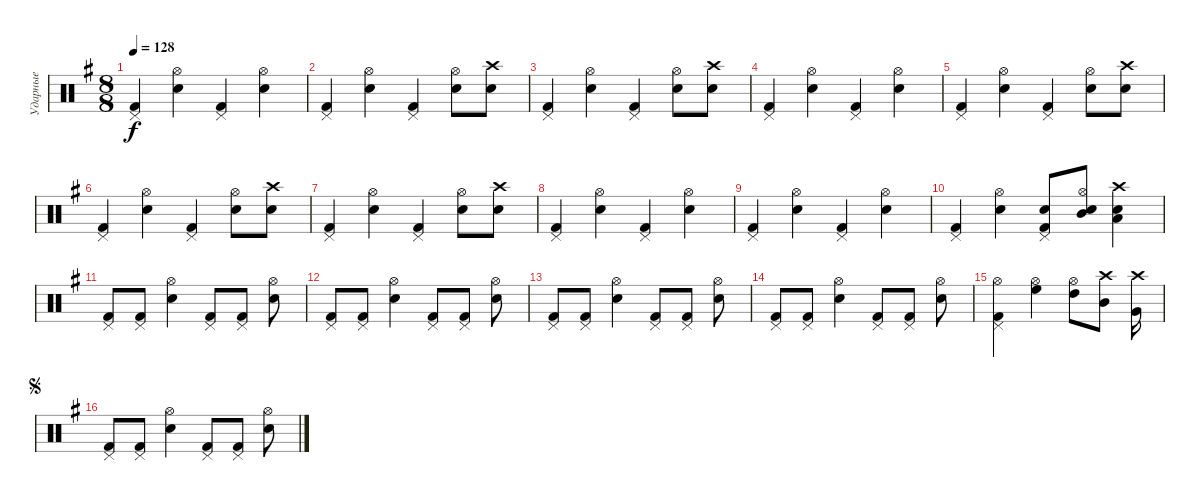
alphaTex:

\track ("Ударные" "Ударные") {instrument percussion}
\staff {score}
\articulation defaults
\ts (8 8)
\tempo 128
\clef neutral
\ks g
("Kick (hit) 2" "Pedal Hi-Hat (hit)").4{dy f} ("Electric Snare (hit)" "Hi-Hat (open)").4 ("Kick (hit) 2" "Pedal Hi-Hat (hit)").4 ("Electric Snare (hit)" "Hi-Hat (open)").4 |
("Kick (hit) 2" "Pedal Hi-Hat (hit)").4 ("Electric Snare (hit)" "Hi-Hat (open)").4 ("Kick (hit) 2" "Pedal Hi-Hat (hit)").4 ("Electric Snare (hit)" "Hi-Hat (open)").8 ("Electric Snare (hit)" "Crash high (hit)").8 |
("Kick (hit) 2" "Pedal Hi-Hat (hit)").4 ("Electric Snare (hit)" "Hi-Hat (open)").4 ("Kick (hit) 2" "Pedal Hi-Hat (hit)").4 ("Electric Snare (hit)" "Hi-Hat (open)").8 ("Electric Snare (hit)" "Crash high (hit)").8 |
("Kick (hit) 2" "Pedal Hi-Hat (hit)").4 ("Electric Snare (hit)" "Hi-Hat (open)").4 ("Kick (hit) 2" "Pedal Hi-Hat (hit)").4 ("Electric Snare (hit)" "Hi-Hat (open)").4 |
("Kick (hit) 2" "Pedal Hi-Hat (hit)").4 ("Electric Snare (hit)" "Hi-Hat (open)").4 ("Kick (hit) 2" "Pedal Hi-Hat (hit)").4 ("Electric Snare (hit)" "Hi-Hat (open)").8 ("Electric Snare (hit)" "Crash high (hit)").8 |
("Kick (hit) 2" "Pedal Hi-Hat (hit)").4 ("Electric Snare (hit)" "Hi-Hat (open)").4 ("Kick (hit) 2" "Pedal Hi-Hat (hit)").4 ("Electric Snare (hit)" "Hi-Hat (open)").8 ("Electric Snare (hit)" "Crash high (hit)").8 |
("Kick (hit) 2" "Pedal Hi-Hat (hit)").4 ("Electric Snare (hit)" "Hi-Hat (open)").4 ("Kick (hit) 2" "Pedal Hi-Hat (hit)").4 ("Electric Snare (hit)" "Hi-Hat (open)").8 ("Electric Snare (hit)" "Crash high (hit)").8 |
("Kick (hit) 2" "Pedal Hi-Hat (hit)").4 ("Electric Snare (hit)" "Hi-Hat (open)").4 ("Kick (hit) 2" "Pedal Hi-Hat (hit)").4 ("Electric Snare (hit)" "Hi-Hat (open)").4 |
("Kick (hit) 2" "Pedal Hi-Hat (hit)").4 ("Electric Snare (hit)" "Hi-Hat (open)").4 ("Kick (hit) 2" "Pedal Hi-Hat (hit)").4 ("Electric Snare (hit)" "Hi-Hat (open)").4 |
("Kick (hit) 2" "Pedal Hi-Hat (hit)").4 ("Electric Snare (hit)" "Hi-Hat (open)").4 ("Electric Snare (hit)" "Kick (hit) 2" "Pedal Hi-Hat (hit)").8 ("Electric Snare (hit)" "Mid Tom (hit)" "Hi-Hat (open)").8 ("Electric Snare (hit)" "Low Tom (hit)" "Crash high (hit)").4 |
("Kick (hit) 2" "Pedal Hi-Hat (hit)").8 ("Kick (hit) 2" "Pedal Hi-Hat (hit)").8 ("Electric Snare (hit)" "Hi-Hat (open)").4 ("Kick (hit) 2" "Pedal Hi-Hat (hit)").8 ("Kick (hit) 2" "Pedal Hi-Hat (hit)").8 ("Electric Snare (hit)" "Hi-Hat (open)").8 |
("Kick (hit) 2" "Pedal Hi-Hat (hit)").8 ("Kick (hit) 2" "Pedal Hi-Hat (hit)").8 ("Electric Snare (hit)" "Hi-Hat (open)").4 ("Kick (hit) 2" "Pedal Hi-Hat (hit)").8 ("Kick (hit) 2" "Pedal Hi-Hat (hit)").8 ("Electric Snare (hit)" "Hi-Hat (open)").8 |
("Kick (hit) 2" "Pedal Hi-Hat (hit)").8 ("Kick (hit) 2" "Pedal Hi-Hat (hit)").8 ("Electric Snare (hit)" "Hi-Hat (open)").4 ("Kick (hit) 2" "Pedal Hi-Hat (hit)").8 ("Kick (hit) 2" "Pedal Hi-Hat (hit)").8 ("Electric Snare (hit)" "Hi-Hat (open)").8 |
("Kick (hit) 2" "Pedal Hi-Hat (hit)").8 ("Kick (hit) 2" "Pedal Hi-Hat (hit)").8 ("Electric Snare (hit)" "Hi-Hat (open)").4 ("Kick (hit) 2" "Pedal Hi-Hat (hit)").8 ("Kick (hit) 2" "Pedal Hi-Hat (hit)").8 ("Electric Snare (hit)" "Hi-Hat (open)").8 |
("Kick (hit) 2" "Pedal Hi-Hat (hit)" "Hi-Hat (open)").4 ("High Floor Tom (hit)" "Hi-Hat (open)").4 ("High Tom (hit)" "Hi-Hat (open)").8 ("Mid Tom (hit)" "Crash high (hit)").8 ("Very Low Tom (hit)" "Crash high (hit)").16 |
\jump segno
("Kick (hit) 2" "Pedal Hi-Hat (hit)").8 ("Kick (hit) 2" "Pedal Hi-Hat (hit)").8 ("Electric Snare (hit)" "Hi-Hat (open)").4 ("Kick (hit) 2" "Pedal Hi-Hat (hit)").8 ("Kick (hit) 2" "Pedal Hi-Hat (hit)").8 ("Electric Snare (hit)" "Hi-Hat (open)").8
